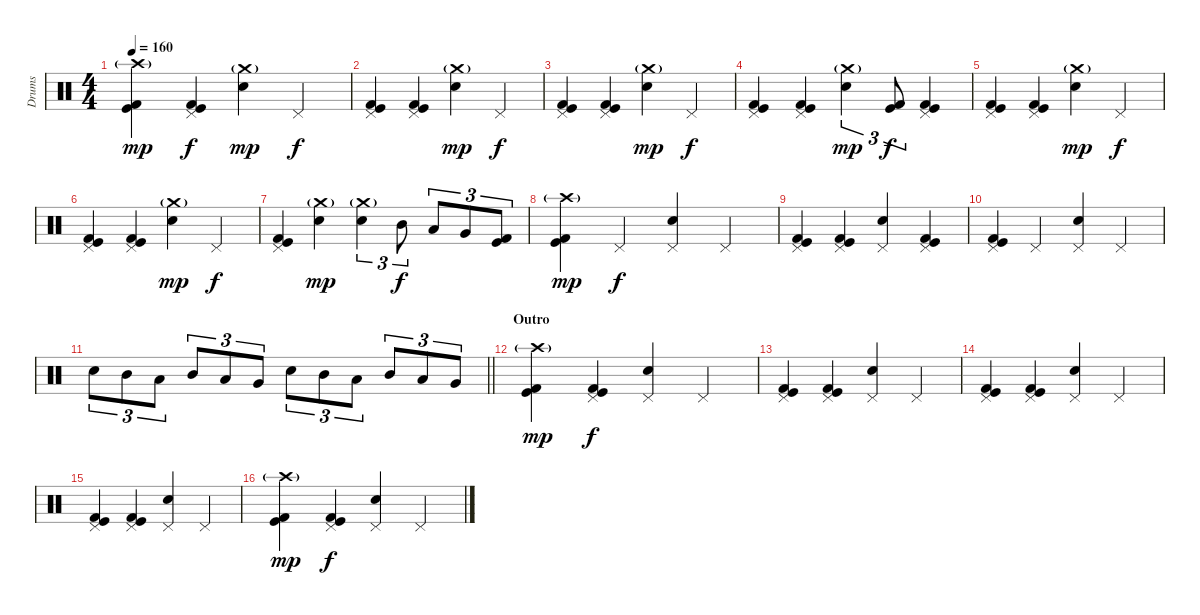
\track ("Drums" "Drums") {instrument percussion}
\staff {score}
\articulation defaults
\ts (4 4)
\tempo 160
\clef neutral
\ks c
("Crash high (hit)"{g} "Kick (hit)" "Kick (hit) 2").4{dy mp} ("Pedal Hi-Hat (hit)" "Kick (hit)" "Kick (hit) 2").4{dy f} ("Crash medium (hit)"{g} "Electric Snare (hit)").4{dy mp} "Pedal Hi-Hat (hit)".4{dy f} |
("Pedal Hi-Hat (hit)" "Kick (hit)" "Kick (hit) 2").4 ("Pedal Hi-Hat (hit)" "Kick (hit)" "Kick (hit) 2").4 ("Crash medium (hit)"{g} "Electric Snare (hit)").4{dy mp} "Pedal Hi-Hat (hit)".4{dy f} |
("Pedal Hi-Hat (hit)" "Kick (hit)" "Kick (hit) 2").4 ("Pedal Hi-Hat (hit)" "Kick (hit)" "Kick (hit) 2").4 ("Crash medium (hit)"{g} "Electric Snare (hit)").4{dy mp} "Pedal Hi-Hat (hit)".4{dy f} |
("Pedal Hi-Hat (hit)" "Kick (hit)" "Kick (hit) 2").4 ("Pedal Hi-Hat (hit)" "Kick (hit)" "Kick (hit) 2").4 ("Crash medium (hit)"{g} "Electric Snare (hit)").4{tu (3 2) dy mp} ("Kick (hit)" "Kick (hit) 2").8{tu (3 2) dy f} ("Pedal Hi-Hat (hit)" "Kick (hit)" "Kick (hit) 2").4 |
("Pedal Hi-Hat (hit)" "Kick (hit)" "Kick (hit) 2").4 ("Pedal Hi-Hat (hit)" "Kick (hit)" "Kick (hit) 2").4 ("Crash medium (hit)"{g} "Electric Snare (hit)").4{dy mp} "Pedal Hi-Hat (hit)".4{dy f} |
("Pedal Hi-Hat (hit)" "Kick (hit)" "Kick (hit) 2").4 ("Pedal Hi-Hat (hit)" "Kick (hit)" "Kick (hit) 2").4 ("Crash medium (hit)"{g} "Electric Snare (hit)").4{dy mp} "Pedal Hi-Hat (hit)".4{dy f} |
("Pedal Hi-Hat (hit)" "Kick (hit)" "Kick (hit) 2").4 ("Crash medium (hit)"{g} "Electric Snare (hit)").4{dy mp} ("Crash medium (hit)"{g} "Electric Snare (hit)").4{tu (3 2)} "Mid Tom (hit)".8{tu (3 2) dy f} "Low Tom (hit)".8{tu (3 2)} "Very Low Tom (hit)".8{tu (3 2)} ("Kick (hit)" "Kick (hit) 2").8{tu (3 2)} |
("Crash high (hit)"{g} "Kick (hit)" "Kick (hit) 2").4{dy mp} "Pedal Hi-Hat (hit)".4{dy f} ("Pedal Hi-Hat (hit)" "Electric Snare (hit)").4 "Pedal Hi-Hat (hit)".4 |
("Pedal Hi-Hat (hit)" "Kick (hit)" "Kick (hit) 2").4 ("Pedal Hi-Hat (hit)" "Kick (hit)" "Kick (hit) 2").4 ("Pedal Hi-Hat (hit)" "Electric Snare (hit)").4 ("Pedal Hi-Hat (hit)" "Kick (hit)" "Kick (hit) 2").4 |
("Pedal Hi-Hat (hit)" "Kick (hit)" "Kick (hit) 2").4 "Pedal Hi-Hat (hit)".4 ("Pedal Hi-Hat (hit)" "Electric Snare (hit)").4 "Pedal Hi-Hat (hit)".4 |
\barLineRight lightlight "Electric Snare (hit)".8{tu (3 2)} "Mid Tom (hit)".8{tu (3 2)} "Low Tom (hit)".8{tu (3 2)} "Mid Tom (hit)".8{tu (3 2)} "Low Tom (hit)".8{tu (3 2)} "Very Low Tom (hit)".8{tu (3 2)} "Electric Snare (hit)".8{tu (3 2)} "Mid Tom (hit)".8{tu (3 2)} "Low Tom (hit)".8{tu (3 2)} "Mid Tom (hit)".8{tu (3 2)} "Low Tom (hit)".8{tu (3 2)} "Very Low Tom (hit)".8{tu (3 2)}
|
\section ("" "Outro")
("Crash high (hit)"{g} "Kick (hit)" "Kick (hit) 2").4{dy mp} ("Pedal Hi-Hat (hit)" "Kick (hit)" "Kick (hit) 2").4{dy f} ("Pedal Hi-Hat (hit)" "Electric Snare (hit)").4 "Pedal Hi-Hat (hit)".4 |
("Pedal Hi-Hat (hit)" "Kick (hit)" "Kick (hit) 2").4 ("Pedal Hi-Hat (hit)" "Kick (hit)" "Kick (hit) 2").4 ("Pedal Hi-Hat (hit)" "Electric Snare (hit)").4 "Pedal Hi-Hat (hit)".4 |
("Pedal Hi-Hat (hit)" "Kick (hit)" "Kick (hit) 2").4 ("Pedal Hi-Hat (hit)" "Kick (hit)" "Kick (hit) 2").4 ("Pedal Hi-Hat (hit)" "Electric Snare (hit)").4 "Pedal Hi-Hat (hit)".4 |
("Pedal Hi-Hat (hit)" "Kick (hit)" "Kick (hit) 2").4 ("Pedal Hi-Hat (hit)" "Kick (hit)" "Kick (hit) 2").4 ("Pedal Hi-Hat (hit)" "Electric Snare (hit)").4 "Pedal Hi-Hat (hit)".4 |
("Crash high (hit)"{g} "Kick (hit)" "Kick (hit) 2").4{dy mp} ("Pedal Hi-Hat (hit)" "Kick (hit)" "Kick (hit) 2").4{dy f} ("Pedal Hi-Hat (hit)" "Electric Snare (hit)").4 "Pedal Hi-Hat (hit)".4
